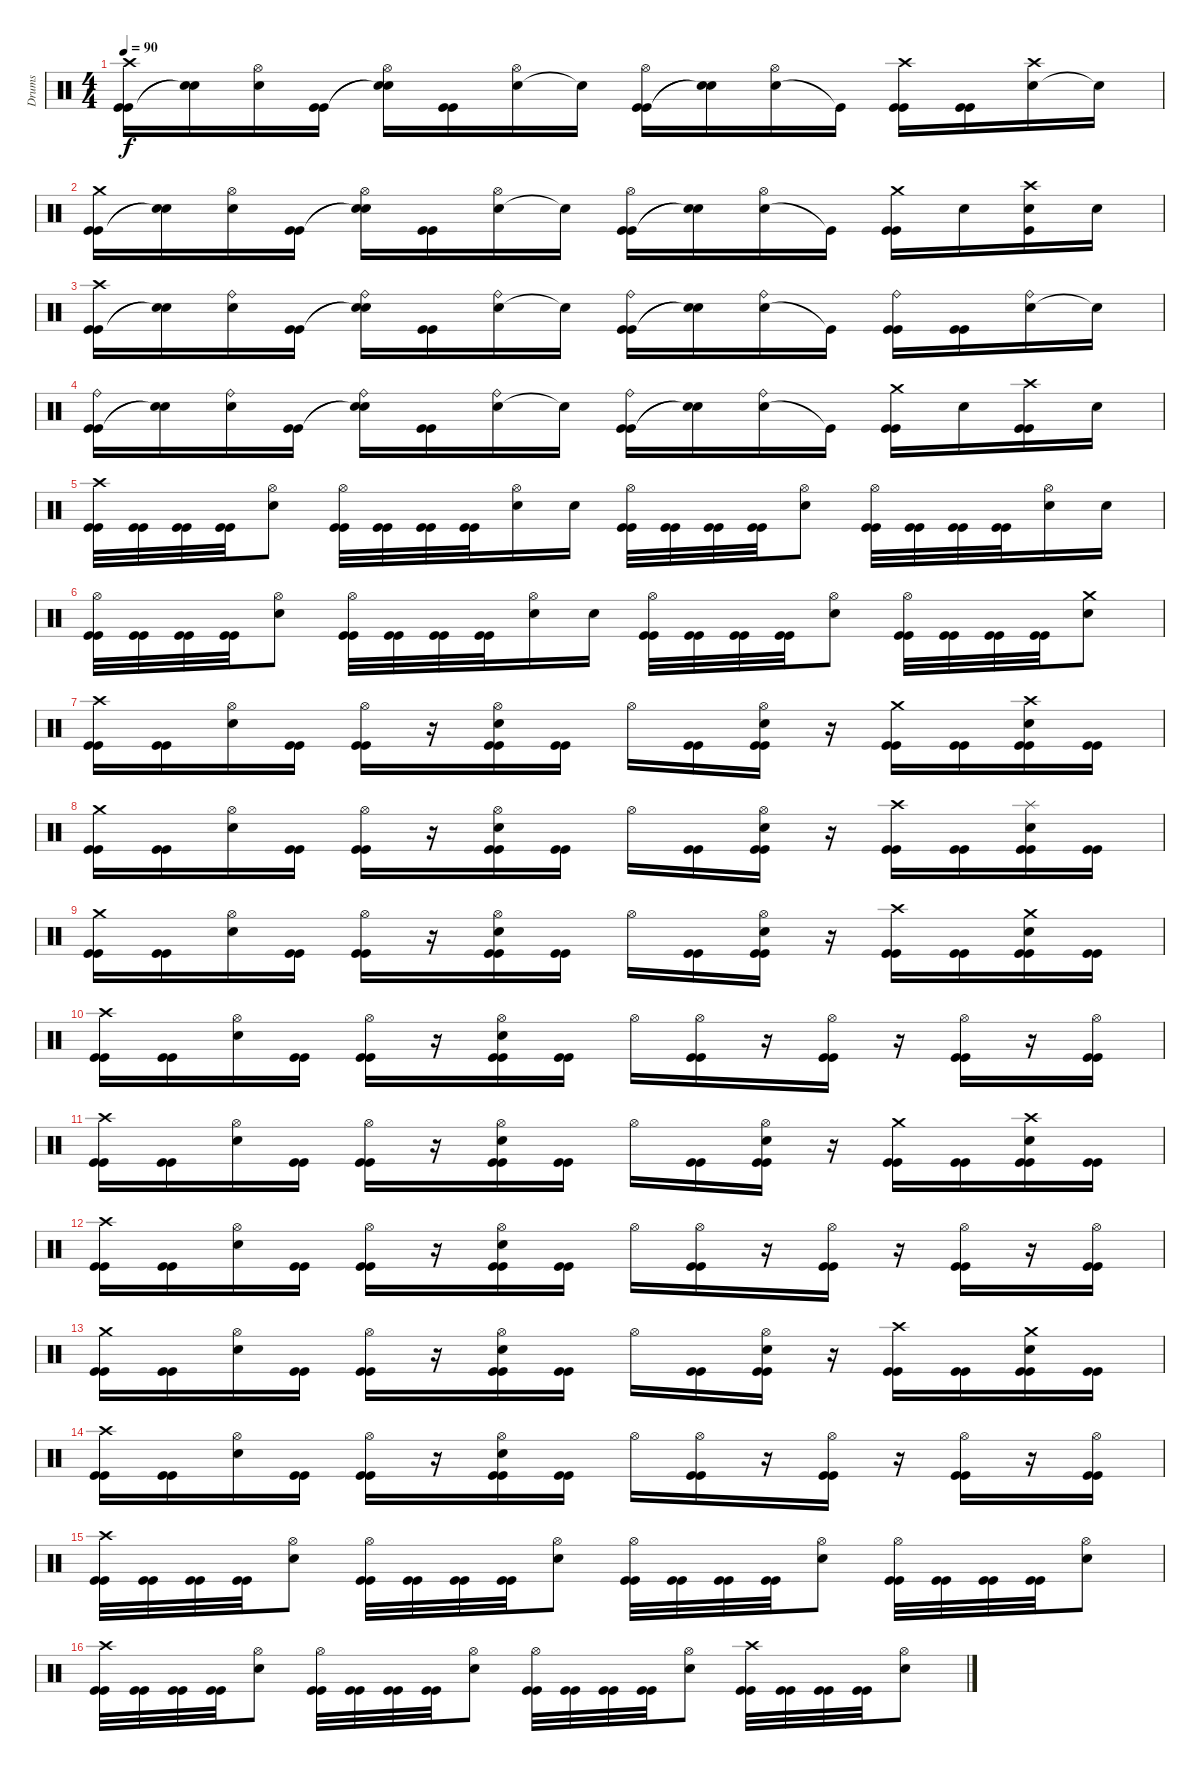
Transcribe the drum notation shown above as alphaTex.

\track ("Drums" "Drums") {instrument percussion}
\staff {score}
\articulation defaults
\ts (4 4)
\tempo 90
\clef neutral
\ks c
("Kick (hit)" "Kick (hit)" "Crash high (hit)").16{dy f} ("Snare (hit) 2"{t} "Snare (hit)"{t}).16 ("Snare (hit) 2" "Hi-Hat (open)").16 ("Kick (hit)" "Kick (hit)").16 ("Snare (hit)"{t} "Snare (hit) 2"{t} "Hi-Hat (open)").16 ("Kick (hit)" "Kick (hit)").16 ("Snare (hit) 2" "Hi-Hat (open)").16 "Snare (hit)"{t}.16 ("Kick (hit)" "Kick (hit)" "Hi-Hat (open)").16 ("Snare (hit) 2"{t} "Snare (hit)"{t}).16 ("Snare (hit) 2" "Hi-Hat (open)").16 "Kick (hit)"{t}.16 ("Kick (hit)" "Kick (hit)" "Crash high (hit)").16 ("Kick (hit)" "Kick (hit)").16 ("Snare (hit) 2" "Crash high (hit)").16 "Snare (hit)"{t}.16 |
("Kick (hit)" "Kick (hit)" "Crash medium (hit)").16 ("Snare (hit) 2"{t} "Snare (hit)"{t}).16 ("Snare (hit) 2" "Hi-Hat (open)").16 ("Kick (hit)" "Kick (hit)").16 ("Snare (hit)"{t} "Snare (hit) 2"{t} "Hi-Hat (open)").16 ("Kick (hit)" "Kick (hit)").16 ("Snare (hit) 2" "Hi-Hat (open)").16 "Snare (hit)"{t}.16 ("Kick (hit)" "Kick (hit)" "Hi-Hat (open)").16 ("Snare (hit) 2"{t} "Snare (hit)"{t}).16 ("Snare (hit) 2" "Hi-Hat (open)").16 "Kick (hit)"{t}.16 ("Kick (hit)" "Kick (hit)" "Crash medium (hit)").16 "Snare (hit) 2".16 ("Kick (hit)" "Snare (hit) 2" "Crash high (hit)").16 "Snare (hit) 2".16 |
("Kick (hit)" "Kick (hit)" "Crash high (hit)").16 ("Snare (hit) 2"{t} "Snare (hit)"{t}).16 ("Snare (hit) 2" "Ride (bell)").16 ("Kick (hit)" "Kick (hit)").16 ("Snare (hit)"{t} "Snare (hit) 2"{t} "Ride (bell)").16 ("Kick (hit)" "Kick (hit)").16 ("Snare (hit) 2" "Ride (bell)").16 "Snare (hit)"{t}.16 ("Kick (hit)" "Kick (hit)" "Ride (bell)").16 ("Snare (hit) 2"{t} "Snare (hit)"{t}).16 ("Snare (hit) 2" "Ride (bell)").16 "Kick (hit)"{t}.16 ("Kick (hit)" "Kick (hit)" "Ride (bell)").16 ("Kick (hit)" "Kick (hit)").16 ("Snare (hit) 2" "Ride (bell)").16 "Snare (hit)"{t}.16 |
("Kick (hit)" "Kick (hit)" "Ride (bell)").16 ("Snare (hit) 2"{t} "Snare (hit)"{t}).16 ("Snare (hit) 2" "Ride (bell)").16 ("Kick (hit)" "Kick (hit)").16 ("Snare (hit)"{t} "Snare (hit) 2"{t} "Ride (bell)").16 ("Kick (hit)" "Kick (hit)").16 ("Snare (hit) 2" "Ride (bell)").16 "Snare (hit)"{t}.16 ("Kick (hit)" "Kick (hit)" "Ride (bell)").16 ("Snare (hit) 2"{t} "Snare (hit)"{t}).16 ("Snare (hit) 2" "Ride (bell)").16 "Kick (hit)"{t}.16 ("Kick (hit)" "Kick (hit)" "Crash medium (hit)").16 "Snare (hit) 2".16 ("Kick (hit)" "Kick (hit)" "Crash high (hit)").16 "Snare (hit) 2".16 |
("Kick (hit)" "Kick (hit)" "Crash high (hit)").32 ("Kick (hit)" "Kick (hit)").32 ("Kick (hit)" "Kick (hit)").32 ("Kick (hit)" "Kick (hit)").32 ("Snare (hit) 2" "Hi-Hat (open)").8 ("Kick (hit)" "Kick (hit)" "Hi-Hat (open)").32 ("Kick (hit)" "Kick (hit)").32 ("Kick (hit)" "Kick (hit)").32 ("Kick (hit)" "Kick (hit)").32 ("Snare (hit) 2" "Hi-Hat (open)").16 "Snare (hit) 2".16 ("Kick (hit)" "Kick (hit)" "Hi-Hat (open)").32 ("Kick (hit)" "Kick (hit)").32 ("Kick (hit)" "Kick (hit)").32 ("Kick (hit)" "Kick (hit)").32 ("Snare (hit) 2" "Hi-Hat (open)").8 ("Kick (hit)" "Kick (hit)" "Hi-Hat (open)").32 ("Kick (hit)" "Kick (hit)").32 ("Kick (hit)" "Kick (hit)").32 ("Kick (hit)" "Kick (hit)").32 ("Snare (hit) 2" "Hi-Hat (open)").16 "Snare (hit) 2".16 |
("Kick (hit)" "Kick (hit)" "Hi-Hat (open)").32 ("Kick (hit)" "Kick (hit)").32 ("Kick (hit)" "Kick (hit)").32 ("Kick (hit)" "Kick (hit)").32 ("Snare (hit) 2" "Hi-Hat (open)").8 ("Kick (hit)" "Kick (hit)" "Hi-Hat (open)").32 ("Kick (hit)" "Kick (hit)").32 ("Kick (hit)" "Kick (hit)").32 ("Kick (hit)" "Kick (hit)").32 ("Snare (hit) 2" "Hi-Hat (open)").16 "Snare (hit) 2".16 ("Kick (hit)" "Kick (hit)" "Hi-Hat (open)").32 ("Kick (hit)" "Kick (hit)").32 ("Kick (hit)" "Kick (hit)").32 ("Kick (hit)" "Kick (hit)").32 ("Snare (hit) 2" "Hi-Hat (open)").8 ("Kick (hit)" "Kick (hit)" "Hi-Hat (open)").32 ("Kick (hit)" "Kick (hit)").32 ("Kick (hit)" "Kick (hit)").32 ("Kick (hit)" "Kick (hit)").32 ("Snare (hit) 2" "Crash medium (hit)").8 |
("Kick (hit)" "Kick (hit)" "Crash high (hit)").16 ("Kick (hit)" "Kick (hit)").16 ("Snare (hit) 2" "Hi-Hat (open)").16 ("Kick (hit)" "Kick (hit)").16 ("Kick (hit)" "Kick (hit)" "Hi-Hat (open)").16 r.16 ("Kick (hit)" "Kick (hit)" "Snare (hit) 2" "Hi-Hat (open)").16 ("Kick (hit)" "Kick (hit)").16 "Hi-Hat (open)".16 ("Kick (hit)" "Kick (hit)").16 ("Kick (hit)" "Kick (hit)" "Snare (hit) 2" "Hi-Hat (open)").16 r.16 ("Kick (hit)" "Kick (hit)" "Crash medium (hit)").16 ("Kick (hit)" "Kick (hit)").16 ("Kick (hit)" "Kick (hit)" "Snare (hit) 2" "Crash high (hit)").16 ("Kick (hit)" "Kick (hit)").16 |
("Kick (hit)" "Kick (hit)" "Crash medium (hit)").16 ("Kick (hit)" "Kick (hit)").16 ("Snare (hit) 2" "Hi-Hat (open)").16 ("Kick (hit)" "Kick (hit)").16 ("Kick (hit)" "Kick (hit)" "Hi-Hat (open)").16 r.16 ("Kick (hit)" "Kick (hit)" "Snare (hit) 2" "Hi-Hat (open)").16 ("Kick (hit)" "Kick (hit)").16 "Hi-Hat (open)".16 ("Kick (hit)" "Kick (hit)").16 ("Kick (hit)" "Kick (hit)" "Snare (hit) 2" "Hi-Hat (open)").16 r.16 ("Kick (hit)" "Kick (hit)" "Crash high (hit)").16 ("Kick (hit)" "Kick (hit)").16 ("Kick (hit)" "Kick (hit)" "Snare (hit) 2" "Splash (hit)").16 ("Kick (hit)" "Kick (hit)").16 |
("Kick (hit)" "Kick (hit)" "Crash medium (hit)").16 ("Kick (hit)" "Kick (hit)").16 ("Snare (hit) 2" "Hi-Hat (open)").16 ("Kick (hit)" "Kick (hit)").16 ("Kick (hit)" "Kick (hit)" "Hi-Hat (open)").16 r.16 ("Kick (hit)" "Kick (hit)" "Snare (hit) 2" "Hi-Hat (open)").16 ("Kick (hit)" "Kick (hit)").16 "Hi-Hat (open)".16 ("Kick (hit)" "Kick (hit)").16 ("Kick (hit)" "Kick (hit)" "Snare (hit) 2" "Hi-Hat (open)").16 r.16 ("Kick (hit)" "Kick (hit)" "Crash high (hit)").16 ("Kick (hit)" "Kick (hit)").16 ("Kick (hit)" "Kick (hit)" "Snare (hit) 2" "Crash medium (hit)").16 ("Kick (hit)" "Kick (hit)").16 |
("Kick (hit)" "Kick (hit)" "Crash high (hit)").16 ("Kick (hit)" "Kick (hit)").16 ("Snare (hit) 2" "Hi-Hat (open)").16 ("Kick (hit)" "Kick (hit)").16 ("Kick (hit)" "Kick (hit)" "Hi-Hat (open)").16 r.16 ("Kick (hit)" "Kick (hit)" "Snare (hit) 2" "Hi-Hat (open)").16 ("Kick (hit)" "Kick (hit)").16 "Hi-Hat (open)".16 ("Kick (hit)" "Hi-Hat (open)" "Kick (hit)").16 r.16 ("Kick (hit)" "Hi-Hat (open)" "Kick (hit)").16 r.16 ("Kick (hit)" "Hi-Hat (open)" "Kick (hit)").16 r.16 ("Kick (hit)" "Hi-Hat (open)" "Kick (hit)").16 |
("Kick (hit)" "Kick (hit)" "Crash high (hit)").16 ("Kick (hit)" "Kick (hit)").16 ("Snare (hit) 2" "Hi-Hat (open)").16 ("Kick (hit)" "Kick (hit)").16 ("Kick (hit)" "Kick (hit)" "Hi-Hat (open)").16 r.16 ("Kick (hit)" "Kick (hit)" "Snare (hit) 2" "Hi-Hat (open)").16 ("Kick (hit)" "Kick (hit)").16 "Hi-Hat (open)".16 ("Kick (hit)" "Kick (hit)").16 ("Kick (hit)" "Kick (hit)" "Snare (hit) 2" "Hi-Hat (open)").16 r.16 ("Kick (hit)" "Kick (hit)" "Crash medium (hit)").16 ("Kick (hit)" "Kick (hit)").16 ("Kick (hit)" "Kick (hit)" "Snare (hit) 2" "Crash high (hit)").16 ("Kick (hit)" "Kick (hit)").16 |
("Kick (hit)" "Kick (hit)" "Crash high (hit)").16 ("Kick (hit)" "Kick (hit)").16 ("Snare (hit) 2" "Hi-Hat (open)").16 ("Kick (hit)" "Kick (hit)").16 ("Kick (hit)" "Kick (hit)" "Hi-Hat (open)").16 r.16 ("Kick (hit)" "Kick (hit)" "Snare (hit) 2" "Hi-Hat (open)").16 ("Kick (hit)" "Kick (hit)").16 "Hi-Hat (open)".16 ("Kick (hit)" "Hi-Hat (open)" "Kick (hit)").16 r.16 ("Kick (hit)" "Hi-Hat (open)" "Kick (hit)").16 r.16 ("Kick (hit)" "Hi-Hat (open)" "Kick (hit)").16 r.16 ("Kick (hit)" "Hi-Hat (open)" "Kick (hit)").16 |
("Kick (hit)" "Kick (hit)" "Crash medium (hit)").16 ("Kick (hit)" "Kick (hit)").16 ("Snare (hit) 2" "Hi-Hat (open)").16 ("Kick (hit)" "Kick (hit)").16 ("Kick (hit)" "Kick (hit)" "Hi-Hat (open)").16 r.16 ("Kick (hit)" "Kick (hit)" "Snare (hit) 2" "Hi-Hat (open)").16 ("Kick (hit)" "Kick (hit)").16 "Hi-Hat (open)".16 ("Kick (hit)" "Kick (hit)").16 ("Kick (hit)" "Kick (hit)" "Snare (hit) 2" "Hi-Hat (open)").16 r.16 ("Kick (hit)" "Kick (hit)" "Crash high (hit)").16 ("Kick (hit)" "Kick (hit)").16 ("Kick (hit)" "Kick (hit)" "Snare (hit) 2" "Crash medium (hit)").16 ("Kick (hit)" "Kick (hit)").16 |
("Kick (hit)" "Kick (hit)" "Crash high (hit)").16 ("Kick (hit)" "Kick (hit)").16 ("Snare (hit) 2" "Hi-Hat (open)").16 ("Kick (hit)" "Kick (hit)").16 ("Kick (hit)" "Kick (hit)" "Hi-Hat (open)").16 r.16 ("Kick (hit)" "Kick (hit)" "Snare (hit) 2" "Hi-Hat (open)").16 ("Kick (hit)" "Kick (hit)").16 "Hi-Hat (open)".16 ("Kick (hit)" "Hi-Hat (open)" "Kick (hit)").16 r.16 ("Kick (hit)" "Hi-Hat (open)" "Kick (hit)").16 r.16 ("Kick (hit)" "Hi-Hat (open)" "Kick (hit)").16 r.16 ("Kick (hit)" "Hi-Hat (open)" "Kick (hit)").16 |
("Kick (hit)" "Kick (hit)" "Crash high (hit)").32 ("Kick (hit)" "Kick (hit)").32 ("Kick (hit)" "Kick (hit)").32 ("Kick (hit)" "Kick (hit)").32 ("Snare (hit) 2" "Hi-Hat (open)").8 ("Kick (hit)" "Kick (hit)" "Hi-Hat (open)").32 ("Kick (hit)" "Kick (hit)").32 ("Kick (hit)" "Kick (hit)").32 ("Kick (hit)" "Kick (hit)").32 ("Snare (hit) 2" "Hi-Hat (open)").8 ("Kick (hit)" "Kick (hit)" "Hi-Hat (open)").32 ("Kick (hit)" "Kick (hit)").32 ("Kick (hit)" "Kick (hit)").32 ("Kick (hit)" "Kick (hit)").32 ("Snare (hit) 2" "Hi-Hat (open)").8 ("Kick (hit)" "Kick (hit)" "Hi-Hat (open)").32 ("Kick (hit)" "Kick (hit)").32 ("Kick (hit)" "Kick (hit)").32 ("Kick (hit)" "Kick (hit)").32 ("Snare (hit) 2" "Hi-Hat (open)").8 |
("Kick (hit)" "Kick (hit)" "Crash high (hit)").32 ("Kick (hit)" "Kick (hit)").32 ("Kick (hit)" "Kick (hit)").32 ("Kick (hit)" "Kick (hit)").32 ("Snare (hit) 2" "Hi-Hat (open)").8 ("Kick (hit)" "Kick (hit)" "Hi-Hat (open)").32 ("Kick (hit)" "Kick (hit)").32 ("Kick (hit)" "Kick (hit)").32 ("Kick (hit)" "Kick (hit)").32 ("Snare (hit) 2" "Hi-Hat (open)").8 ("Kick (hit)" "Kick (hit)" "Hi-Hat (open)").32 ("Kick (hit)" "Kick (hit)").32 ("Kick (hit)" "Kick (hit)").32 ("Kick (hit)" "Kick (hit)").32 ("Snare (hit) 2" "Hi-Hat (open)").8 ("Kick (hit)" "Kick (hit)" "Crash high (hit)").32 ("Kick (hit)" "Kick (hit)").32 ("Kick (hit)" "Kick (hit)").32 ("Kick (hit)" "Kick (hit)").32 ("Snare (hit) 2" "Hi-Hat (open)").8
